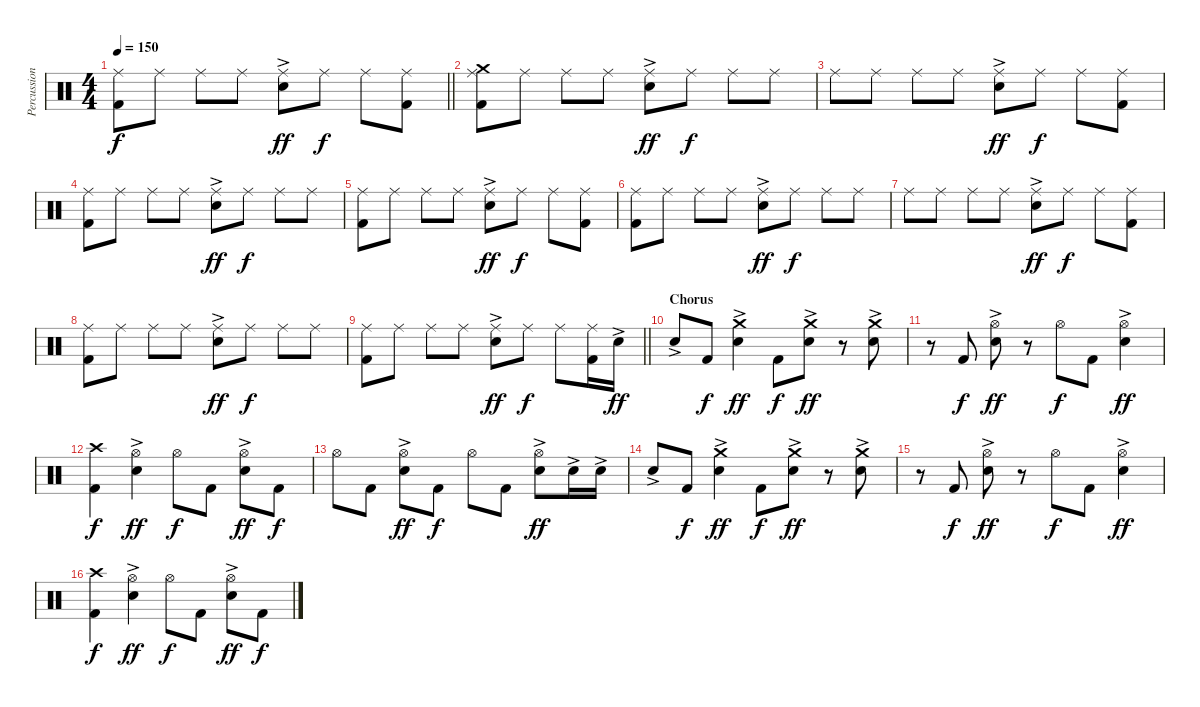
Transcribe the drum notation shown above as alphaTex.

\track ("Percussion" "Percussion") {instrument percussion}
\staff {score}
\articulation defaults
\ts (4 4)
\tempo 150
\clef neutral
\barLineRight lightlight
\ks c
("Ride (middle)" "Kick (hit) 2").8{dy f} "Ride (middle)".8 "Ride (middle)".8 "Ride (middle)".8 ("Ride (middle)" "Electric Snare (hit)"{ac}).8{dy ff} "Ride (middle)".8{dy f} "Ride (middle)".8 ("Ride (middle)" "Kick (hit) 2").8 |
("Crash medium (hit)" "Ride (middle)" "Kick (hit) 2").8 "Ride (middle)".8 "Ride (middle)".8 "Ride (middle)".8 ("Ride (middle)" "Electric Snare (hit)"{ac}).8{dy ff} "Ride (middle)".8{dy f} "Ride (middle)".8 "Ride (middle)".8 |
"Ride (middle)".8 "Ride (middle)".8 "Ride (middle)".8 "Ride (middle)".8 ("Ride (middle)" "Electric Snare (hit)"{ac}).8{dy ff} "Ride (middle)".8{dy f} "Ride (middle)".8 ("Ride (middle)" "Kick (hit) 2").8 |
("Ride (middle)" "Kick (hit) 2").8 "Ride (middle)".8 "Ride (middle)".8 "Ride (middle)".8 ("Ride (middle)" "Electric Snare (hit)"{ac}).8{dy ff} "Ride (middle)".8{dy f} "Ride (middle)".8 "Ride (middle)".8 |
("Ride (middle)" "Kick (hit) 2").8 "Ride (middle)".8 "Ride (middle)".8 "Ride (middle)".8 ("Ride (middle)" "Electric Snare (hit)"{ac}).8{dy ff} "Ride (middle)".8{dy f} "Ride (middle)".8 ("Ride (middle)" "Kick (hit) 2").8 |
("Ride (middle)" "Kick (hit) 2").8 "Ride (middle)".8 "Ride (middle)".8 "Ride (middle)".8 ("Ride (middle)" "Electric Snare (hit)"{ac}).8{dy ff} "Ride (middle)".8{dy f} "Ride (middle)".8 "Ride (middle)".8 |
"Ride (middle)".8 "Ride (middle)".8 "Ride (middle)".8 "Ride (middle)".8 ("Ride (middle)" "Electric Snare (hit)"{ac}).8{dy ff} "Ride (middle)".8{dy f} "Ride (middle)".8 ("Ride (middle)" "Kick (hit) 2").8 |
("Ride (middle)" "Kick (hit) 2").8 "Ride (middle)".8 "Ride (middle)".8 "Ride (middle)".8 ("Ride (middle)" "Electric Snare (hit)"{ac}).8{dy ff} "Ride (middle)".8{dy f} "Ride (middle)".8 "Ride (middle)".8 |
\barLineRight lightlight
("Ride (middle)" "Kick (hit) 2").8 "Ride (middle)".8 "Ride (middle)".8 "Ride (middle)".8 ("Ride (middle)" "Electric Snare (hit)"{ac}).8{dy ff} "Ride (middle)".8{dy f} "Ride (middle)".8 ("Ride (middle)" "Kick (hit) 2").16 "Electric Snare (hit)"{ac}.16{dy ff} |
\section ("" "Chorus")
"Electric Snare (hit)"{ac}.8 "Kick (hit) 2".8{dy f} ("Crash medium (hit)" "Electric Snare (hit)"{ac}).4{dy ff} "Kick (hit) 2".8{dy f} ("Crash medium (hit)" "Electric Snare (hit)"{ac}).8{dy ff} r.8 ("Crash medium (hit)" "Electric Snare (hit)"{ac}).8 |
r.8 "Kick (hit) 2".8{dy f} ("Hi-Hat (open)" "Electric Snare (hit)"{ac}).8{dy ff} r.8 "Hi-Hat (open)".8{dy f} "Kick (hit) 2".8 ("Hi-Hat (open)" "Electric Snare (hit)"{ac}).4{dy ff} |
("Crash high (hit)" "Kick (hit) 2").4{dy f} ("Hi-Hat (open)" "Electric Snare (hit)"{ac}).4{dy ff} "Hi-Hat (open)".8{dy f} "Kick (hit) 2".8 ("Hi-Hat (open)" "Electric Snare (hit)"{ac}).8{dy ff} "Kick (hit) 2".8{dy f} |
"Hi-Hat (open)".8 "Kick (hit) 2".8 ("Hi-Hat (open)" "Electric Snare (hit)"{ac}).8{dy ff} "Kick (hit) 2".8{dy f} "Hi-Hat (open)".8 "Kick (hit) 2".8 ("Hi-Hat (open)" "Electric Snare (hit)"{ac}).8{dy ff} "Electric Snare (hit)"{ac}.16 "Electric Snare (hit)"{ac}.16 |
"Electric Snare (hit)"{ac}.8 "Kick (hit) 2".8{dy f} ("Crash medium (hit)" "Electric Snare (hit)"{ac}).4{dy ff} "Kick (hit) 2".8{dy f} ("Crash medium (hit)" "Electric Snare (hit)"{ac}).8{dy ff} r.8 ("Crash medium (hit)" "Electric Snare (hit)"{ac}).8 |
r.8 "Kick (hit) 2".8{dy f} ("Hi-Hat (open)" "Electric Snare (hit)"{ac}).8{dy ff} r.8 "Hi-Hat (open)".8{dy f} "Kick (hit) 2".8 ("Hi-Hat (open)" "Electric Snare (hit)"{ac}).4{dy ff} |
("Crash high (hit)" "Kick (hit) 2").4{dy f} ("Hi-Hat (open)" "Electric Snare (hit)"{ac}).4{dy ff} "Hi-Hat (open)".8{dy f} "Kick (hit) 2".8 ("Hi-Hat (open)" "Electric Snare (hit)"{ac}).8{dy ff} "Kick (hit) 2".8{dy f}
